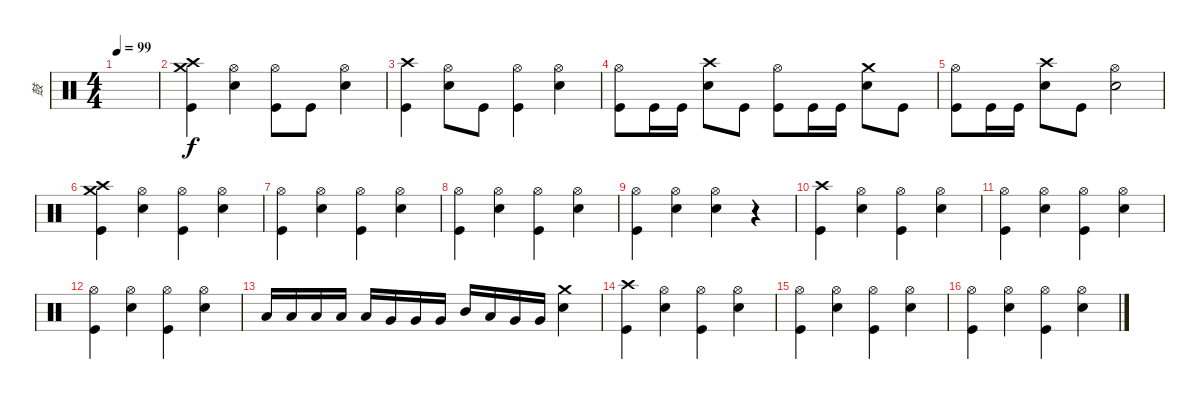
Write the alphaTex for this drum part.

\track ("鼓" "鼓") {instrument percussion}
\staff {score}
\articulation defaults
\ts (4 4)
\tempo 99
\clef neutral
\ks c
|
("Crash medium (hit)" "Kick (hit)" "Crash high (hit)").4 ("Hi-Hat (open)" "Snare (hit) 2").4 ("Hi-Hat (open)" "Kick (hit)").8 "Kick (hit)".8 ("Hi-Hat (open)" "Snare (hit) 2").4 |
("Crash high (hit)" "Kick (hit)").4 ("Hi-Hat (open)" "Snare (hit) 2").8 "Kick (hit)".8 ("Hi-Hat (open)" "Kick (hit)").4 ("Hi-Hat (open)" "Snare (hit) 2").4 |
("Hi-Hat (open)" "Kick (hit)").8 "Kick (hit)".16 "Kick (hit)".16 ("Crash high (hit)" "Snare (hit) 2").8 "Kick (hit)".8 ("Hi-Hat (open)" "Kick (hit)").8 "Kick (hit)".16 "Kick (hit)".16 ("Crash medium (hit)" "Snare (hit) 2").8 "Kick (hit)".8 |
("Hi-Hat (open)" "Kick (hit)").8 "Kick (hit)".16 "Kick (hit)".16 ("Crash high (hit)" "Snare (hit) 2").8 "Kick (hit)".8 ("Hi-Hat (open)" "Snare (hit) 2").2 |
("Crash high (hit)" "Kick (hit)" "Crash medium (hit)").4 ("Hi-Hat (open)" "Snare (hit) 2").4 ("Hi-Hat (open)" "Kick (hit)").4 ("Hi-Hat (open)" "Snare (hit) 2").4 |
("Hi-Hat (open)" "Kick (hit)").4 ("Hi-Hat (open)" "Snare (hit) 2").4 ("Hi-Hat (open)" "Kick (hit)").4 ("Hi-Hat (open)" "Snare (hit) 2").4 |
("Hi-Hat (open)" "Kick (hit)").4 ("Hi-Hat (open)" "Snare (hit) 2").4 ("Hi-Hat (open)" "Kick (hit)").4 ("Hi-Hat (open)" "Snare (hit) 2").4 |
("Hi-Hat (open)" "Kick (hit)").4 ("Hi-Hat (open)" "Snare (hit) 2").4 ("Hi-Hat (open)" "Snare (hit) 2").4 r.4 |
("Crash high (hit)" "Kick (hit)").4 ("Hi-Hat (open)" "Snare (hit) 2").4 ("Hi-Hat (open)" "Kick (hit)").4 ("Hi-Hat (open)" "Snare (hit) 2").4 |
("Hi-Hat (open)" "Kick (hit)").4 ("Hi-Hat (open)" "Snare (hit) 2").4 ("Hi-Hat (open)" "Kick (hit)").4 ("Hi-Hat (open)" "Snare (hit) 2").4 |
("Hi-Hat (open)" "Kick (hit)").4 ("Hi-Hat (open)" "Snare (hit) 2").4 ("Hi-Hat (open)" "Kick (hit)").4 ("Hi-Hat (open)" "Snare (hit) 2").4 |
"Low Tom (hit)".16 "Low Tom (hit)".16 "Low Tom (hit)".16 "Low Tom (hit)".16 "Low Tom (hit)".16 "Very Low Tom (hit)".16 "Very Low Tom (hit)".16 "Very Low Tom (hit)".16 "Mid Tom (hit)".16 "Low Tom (hit)".16 "Very Low Tom (hit)".16 "Very Low Tom (hit)".16 ("Crash medium (hit)" "Snare (hit) 2").4 |
("Crash high (hit)" "Kick (hit)").4 ("Hi-Hat (open)" "Snare (hit) 2").4 ("Hi-Hat (open)" "Kick (hit)").4 ("Hi-Hat (open)" "Snare (hit) 2").4 |
("Hi-Hat (open)" "Kick (hit)").4 ("Hi-Hat (open)" "Snare (hit) 2").4 ("Hi-Hat (open)" "Kick (hit)").4 ("Hi-Hat (open)" "Snare (hit) 2").4 |
("Hi-Hat (open)" "Kick (hit)").4 ("Hi-Hat (open)" "Snare (hit) 2").4 ("Hi-Hat (open)" "Kick (hit)").4 ("Hi-Hat (open)" "Snare (hit) 2").4
